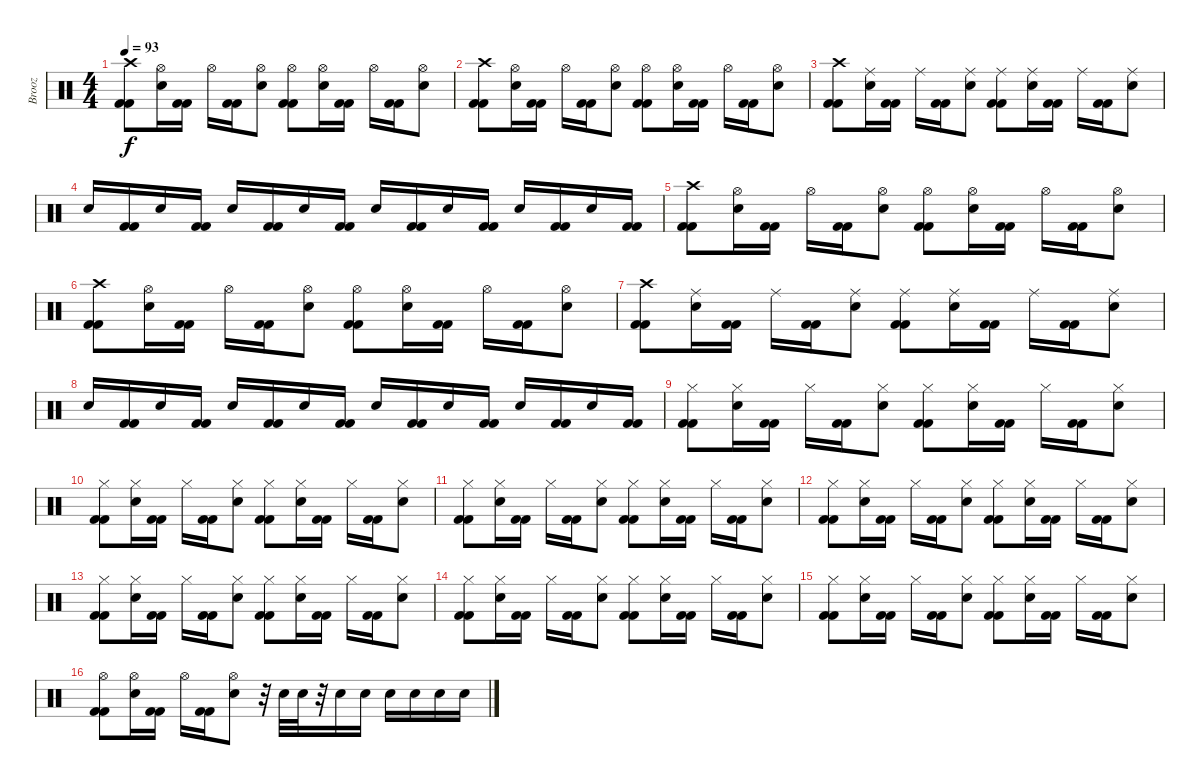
\track ("Brooz" "Brooz") {instrument percussion}
\staff {score}
\articulation defaults
\ts (4 4)
\tempo 93
\clef neutral
\ks c
("Kick (hit) 2" "Crash high (hit)" "Kick (hit) 2").8{dy f} ("Hi-Hat (open)" "Electric Snare (hit)").16 ("Kick (hit) 2" "Kick (hit) 2").16 "Hi-Hat (open)".16 ("Kick (hit) 2" "Kick (hit) 2").16 ("Hi-Hat (open)" "Electric Snare (hit)").8 ("Kick (hit) 2" "Hi-Hat (open)" "Kick (hit) 2").8 ("Hi-Hat (open)" "Electric Snare (hit)").16 ("Kick (hit) 2" "Kick (hit) 2").16 "Hi-Hat (open)".16 ("Kick (hit) 2" "Kick (hit) 2").16 ("Hi-Hat (open)" "Electric Snare (hit)").8 |
("Kick (hit) 2" "Crash high (hit)" "Kick (hit) 2").8 ("Hi-Hat (open)" "Electric Snare (hit)").16 ("Kick (hit) 2" "Kick (hit) 2").16 "Hi-Hat (open)".16 ("Kick (hit) 2" "Kick (hit) 2").16 ("Hi-Hat (open)" "Electric Snare (hit)").8 ("Kick (hit) 2" "Hi-Hat (open)" "Kick (hit) 2").8 ("Hi-Hat (open)" "Electric Snare (hit)").16 ("Kick (hit) 2" "Kick (hit) 2").16 "Hi-Hat (open)".16 ("Kick (hit) 2" "Kick (hit) 2").16 ("Hi-Hat (open)" "Electric Snare (hit)").8 |
("Kick (hit) 2" "Crash high (hit)" "Kick (hit) 2").8 ("Ride (middle)" "Electric Snare (hit)").16 ("Kick (hit) 2" "Kick (hit) 2").16 "Ride (middle)".16 ("Kick (hit) 2" "Kick (hit) 2").16 ("Ride (middle)" "Electric Snare (hit)").8 ("Kick (hit) 2" "Ride (middle)" "Kick (hit) 2").8 ("Ride (middle)" "Electric Snare (hit)").16 ("Kick (hit) 2" "Kick (hit) 2").16 "Ride (middle)".16 ("Kick (hit) 2" "Kick (hit) 2").16 ("Ride (middle)" "Electric Snare (hit)").8 |
"Electric Snare (hit)".16 ("Kick (hit) 2" "Kick (hit) 2").16 "Electric Snare (hit)".16 ("Kick (hit) 2" "Kick (hit) 2").16 "Electric Snare (hit)".16 ("Kick (hit) 2" "Kick (hit) 2").16 "Electric Snare (hit)".16 ("Kick (hit) 2" "Kick (hit) 2").16 "Electric Snare (hit)".16 ("Kick (hit) 2" "Kick (hit) 2").16 "Electric Snare (hit)".16 ("Kick (hit) 2" "Kick (hit) 2").16 "Electric Snare (hit)".16 ("Kick (hit) 2" "Kick (hit) 2").16 "Electric Snare (hit)".16 ("Kick (hit) 2" "Kick (hit) 2").16 |
("Kick (hit) 2" "Crash high (hit)" "Kick (hit) 2").8 ("Hi-Hat (open)" "Electric Snare (hit)").16 ("Kick (hit) 2" "Kick (hit) 2").16 "Hi-Hat (open)".16 ("Kick (hit) 2" "Kick (hit) 2").16 ("Hi-Hat (open)" "Electric Snare (hit)").8 ("Kick (hit) 2" "Hi-Hat (open)" "Kick (hit) 2").8 ("Hi-Hat (open)" "Electric Snare (hit)").16 ("Kick (hit) 2" "Kick (hit) 2").16 "Hi-Hat (open)".16 ("Kick (hit) 2" "Kick (hit) 2").16 ("Hi-Hat (open)" "Electric Snare (hit)").8 |
("Kick (hit) 2" "Crash high (hit)" "Kick (hit) 2").8 ("Hi-Hat (open)" "Electric Snare (hit)").16 ("Kick (hit) 2" "Kick (hit) 2").16 "Hi-Hat (open)".16 ("Kick (hit) 2" "Kick (hit) 2").16 ("Hi-Hat (open)" "Electric Snare (hit)").8 ("Kick (hit) 2" "Hi-Hat (open)" "Kick (hit) 2").8 ("Hi-Hat (open)" "Electric Snare (hit)").16 ("Kick (hit) 2" "Kick (hit) 2").16 "Hi-Hat (open)".16 ("Kick (hit) 2" "Kick (hit) 2").16 ("Hi-Hat (open)" "Electric Snare (hit)").8 |
("Kick (hit) 2" "Crash high (hit)" "Kick (hit) 2").8 ("Ride (middle)" "Electric Snare (hit)").16 ("Kick (hit) 2" "Kick (hit) 2").16 "Ride (middle)".16 ("Kick (hit) 2" "Kick (hit) 2").16 ("Ride (middle)" "Electric Snare (hit)").8 ("Kick (hit) 2" "Ride (middle)" "Kick (hit) 2").8 ("Ride (middle)" "Electric Snare (hit)").16 ("Kick (hit) 2" "Kick (hit) 2").16 "Ride (middle)".16 ("Kick (hit) 2" "Kick (hit) 2").16 ("Ride (middle)" "Electric Snare (hit)").8 |
"Electric Snare (hit)".16 ("Kick (hit) 2" "Kick (hit) 2").16 "Electric Snare (hit)".16 ("Kick (hit) 2" "Kick (hit) 2").16 "Electric Snare (hit)".16 ("Kick (hit) 2" "Kick (hit) 2").16 "Electric Snare (hit)".16 ("Kick (hit) 2" "Kick (hit) 2").16 "Electric Snare (hit)".16 ("Kick (hit) 2" "Kick (hit) 2").16 "Electric Snare (hit)".16 ("Kick (hit) 2" "Kick (hit) 2").16 "Electric Snare (hit)".16 ("Kick (hit) 2" "Kick (hit) 2").16 "Electric Snare (hit)".16 ("Kick (hit) 2" "Kick (hit) 2").16 |
("Kick (hit) 2" "Hi-Hat (closed)" "Kick (hit) 2").8 ("Hi-Hat (closed)" "Electric Snare (hit)").16 ("Kick (hit) 2" "Kick (hit) 2").16 "Hi-Hat (closed)".16 ("Kick (hit) 2" "Kick (hit) 2").16 ("Hi-Hat (closed)" "Electric Snare (hit)").8 ("Kick (hit) 2" "Hi-Hat (closed)" "Kick (hit) 2").8 ("Hi-Hat (closed)" "Electric Snare (hit)").16 ("Kick (hit) 2" "Kick (hit) 2").16 "Hi-Hat (closed)".16 ("Kick (hit) 2" "Kick (hit) 2").16 ("Hi-Hat (closed)" "Electric Snare (hit)").8 |
("Kick (hit) 2" "Hi-Hat (closed)" "Kick (hit) 2").8 ("Hi-Hat (closed)" "Electric Snare (hit)").16 ("Kick (hit) 2" "Kick (hit) 2").16 "Hi-Hat (closed)".16 ("Kick (hit) 2" "Kick (hit) 2").16 ("Hi-Hat (closed)" "Electric Snare (hit)").8 ("Kick (hit) 2" "Hi-Hat (closed)" "Kick (hit) 2").8 ("Hi-Hat (closed)" "Electric Snare (hit)").16 ("Kick (hit) 2" "Kick (hit) 2").16 "Hi-Hat (closed)".16 ("Kick (hit) 2" "Kick (hit) 2").16 ("Hi-Hat (closed)" "Electric Snare (hit)").8 |
("Kick (hit) 2" "Hi-Hat (closed)" "Kick (hit) 2").8 ("Hi-Hat (closed)" "Electric Snare (hit)").16 ("Kick (hit) 2" "Kick (hit) 2").16 "Hi-Hat (closed)".16 ("Kick (hit) 2" "Kick (hit) 2").16 ("Hi-Hat (closed)" "Electric Snare (hit)").8 ("Kick (hit) 2" "Hi-Hat (closed)" "Kick (hit) 2").8 ("Hi-Hat (closed)" "Electric Snare (hit)").16 ("Kick (hit) 2" "Kick (hit) 2").16 "Hi-Hat (closed)".16 ("Kick (hit) 2" "Kick (hit) 2").16 ("Hi-Hat (closed)" "Electric Snare (hit)").8 |
("Kick (hit) 2" "Hi-Hat (closed)" "Kick (hit) 2").8 ("Hi-Hat (closed)" "Electric Snare (hit)").16 ("Kick (hit) 2" "Kick (hit) 2").16 "Hi-Hat (closed)".16 ("Kick (hit) 2" "Kick (hit) 2").16 ("Hi-Hat (closed)" "Electric Snare (hit)").8 ("Kick (hit) 2" "Hi-Hat (closed)" "Kick (hit) 2").8 ("Hi-Hat (closed)" "Electric Snare (hit)").16 ("Kick (hit) 2" "Kick (hit) 2").16 "Hi-Hat (closed)".16 ("Kick (hit) 2" "Kick (hit) 2").16 ("Hi-Hat (closed)" "Electric Snare (hit)").8 |
("Kick (hit) 2" "Hi-Hat (closed)" "Kick (hit) 2").8 ("Hi-Hat (closed)" "Electric Snare (hit)").16 ("Kick (hit) 2" "Kick (hit) 2").16 "Hi-Hat (closed)".16 ("Kick (hit) 2" "Kick (hit) 2").16 ("Hi-Hat (closed)" "Electric Snare (hit)").8 ("Kick (hit) 2" "Hi-Hat (closed)" "Kick (hit) 2").8 ("Hi-Hat (closed)" "Electric Snare (hit)").16 ("Kick (hit) 2" "Kick (hit) 2").16 "Hi-Hat (closed)".16 ("Kick (hit) 2" "Kick (hit) 2").16 ("Hi-Hat (closed)" "Electric Snare (hit)").8 |
("Kick (hit) 2" "Hi-Hat (closed)" "Kick (hit) 2").8 ("Hi-Hat (closed)" "Electric Snare (hit)").16 ("Kick (hit) 2" "Kick (hit) 2").16 "Hi-Hat (closed)".16 ("Kick (hit) 2" "Kick (hit) 2").16 ("Hi-Hat (closed)" "Electric Snare (hit)").8 ("Kick (hit) 2" "Hi-Hat (closed)" "Kick (hit) 2").8 ("Hi-Hat (closed)" "Electric Snare (hit)").16 ("Kick (hit) 2" "Kick (hit) 2").16 "Hi-Hat (closed)".16 ("Kick (hit) 2" "Kick (hit) 2").16 ("Hi-Hat (closed)" "Electric Snare (hit)").8 |
("Kick (hit) 2" "Hi-Hat (closed)" "Kick (hit) 2").8 ("Hi-Hat (closed)" "Electric Snare (hit)").16 ("Kick (hit) 2" "Kick (hit) 2").16 "Hi-Hat (closed)".16 ("Kick (hit) 2" "Kick (hit) 2").16 ("Hi-Hat (closed)" "Electric Snare (hit)").8 ("Kick (hit) 2" "Hi-Hat (closed)" "Kick (hit) 2").8 ("Hi-Hat (closed)" "Electric Snare (hit)").16 ("Kick (hit) 2" "Kick (hit) 2").16 "Hi-Hat (closed)".16 ("Kick (hit) 2" "Kick (hit) 2").16 ("Hi-Hat (closed)" "Electric Snare (hit)").8 |
("Kick (hit) 2" "Hi-Hat (open)" "Kick (hit) 2").8 ("Hi-Hat (open)" "Electric Snare (hit)").16 ("Kick (hit) 2" "Kick (hit) 2").16 "Hi-Hat (open)".16 ("Kick (hit) 2" "Kick (hit) 2").16 ("Hi-Hat (open)" "Electric Snare (hit)").8 r.32 "Electric Snare (hit)".32 "Electric Snare (hit)".32 r.32 "Electric Snare (hit)".16 "Electric Snare (hit)".16 "Electric Snare (hit)".16 "Electric Snare (hit)".16 "Electric Snare (hit)".16 "Electric Snare (hit)".16
